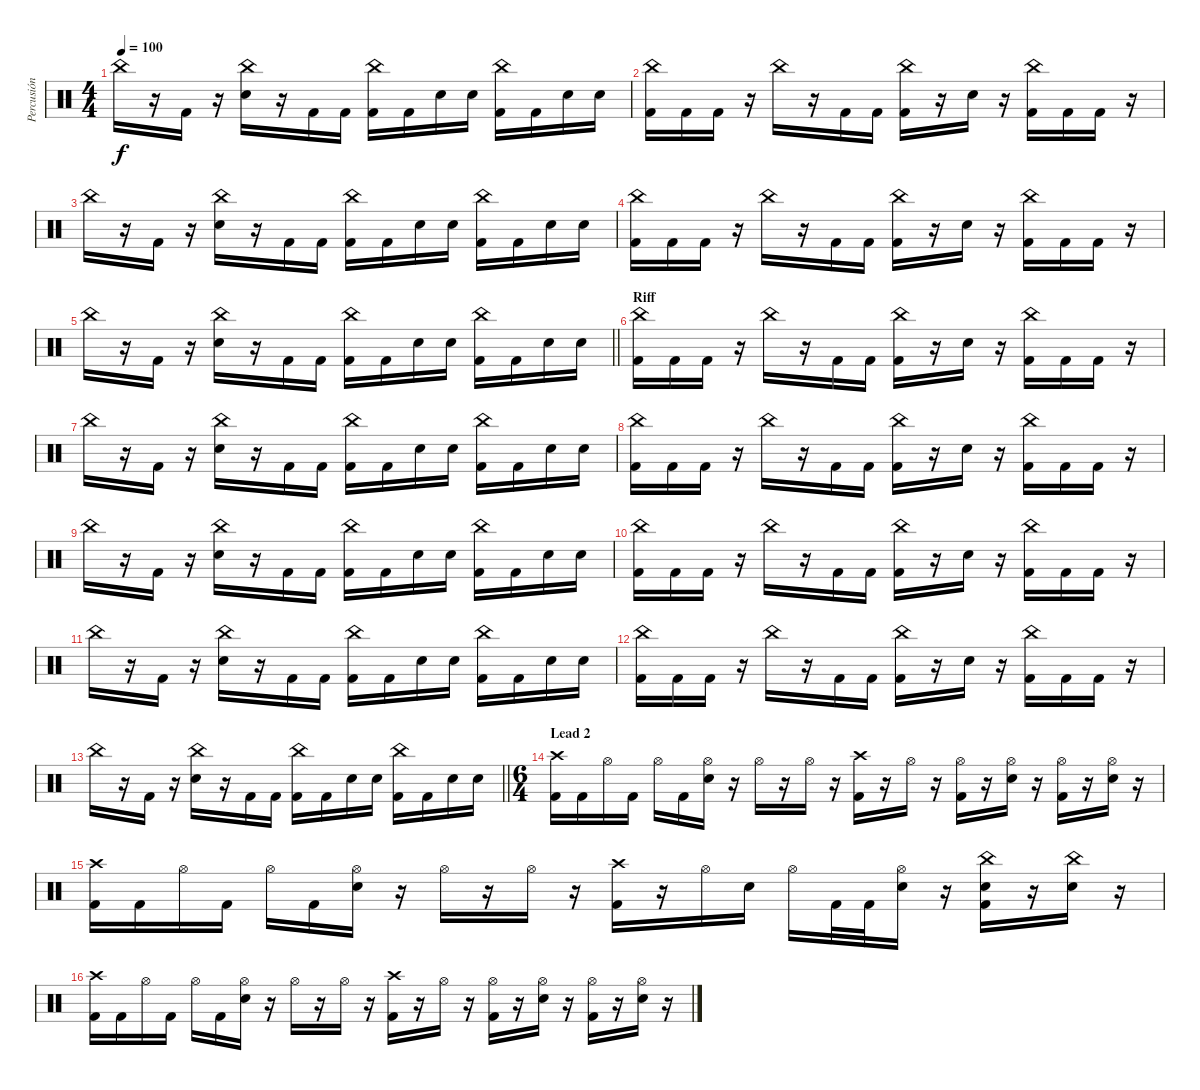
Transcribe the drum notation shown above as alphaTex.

\track ("Percusión" "Percusión") {instrument percussion}
\staff {score}
\articulation defaults
\ts (4 4)
\tempo 100
\clef neutral
\ks c "China (hit)".16{dy f}
r.16 "Kick (hit) 2".16 r.16 ("China (hit)" "Snare (hit) 2").16 r.16 "Kick (hit) 2".16 "Kick (hit) 2".16 ("China (hit)" "Kick (hit) 2").16 "Kick (hit) 2".16 "Snare (hit) 2".16 "Snare (hit) 2".16 ("China (hit)" "Kick (hit) 2").16 "Kick (hit) 2".16 "Snare (hit) 2".16 "Snare (hit) 2".16 |
("China (hit)" "Kick (hit) 2").16 "Kick (hit) 2".16 "Kick (hit) 2".16 r.16 "China (hit)".16 r.16 "Kick (hit) 2".16 "Kick (hit) 2".16 ("China (hit)" "Kick (hit) 2").16 r.16 "Snare (hit) 2".16 r.16 ("China (hit)" "Kick (hit) 2").16 "Kick (hit) 2".16 "Kick (hit) 2".16 r.16 |
"China (hit)".16 r.16 "Kick (hit) 2".16 r.16 ("China (hit)" "Snare (hit) 2").16 r.16 "Kick (hit) 2".16 "Kick (hit) 2".16 ("China (hit)" "Kick (hit) 2").16 "Kick (hit) 2".16 "Snare (hit) 2".16 "Snare (hit) 2".16 ("China (hit)" "Kick (hit) 2").16 "Kick (hit) 2".16 "Snare (hit) 2".16 "Snare (hit) 2".16 |
("China (hit)" "Kick (hit) 2").16 "Kick (hit) 2".16 "Kick (hit) 2".16 r.16 "China (hit)".16 r.16 "Kick (hit) 2".16 "Kick (hit) 2".16 ("China (hit)" "Kick (hit) 2").16 r.16 "Snare (hit) 2".16 r.16 ("China (hit)" "Kick (hit) 2").16 "Kick (hit) 2".16 "Kick (hit) 2".16 r.16 |
\barLineRight lightlight "China (hit)".16
r.16 "Kick (hit) 2".16 r.16 ("China (hit)" "Snare (hit) 2").16 r.16 "Kick (hit) 2".16 "Kick (hit) 2".16 ("China (hit)" "Kick (hit) 2").16 "Kick (hit) 2".16 "Snare (hit) 2".16 "Snare (hit) 2".16 ("China (hit)" "Kick (hit) 2").16 "Kick (hit) 2".16 "Snare (hit) 2".16 "Snare (hit) 2".16 |
\section ("" "Riff")
("China (hit)" "Kick (hit) 2").16 "Kick (hit) 2".16 "Kick (hit) 2".16 r.16 "China (hit)".16 r.16 "Kick (hit) 2".16 "Kick (hit) 2".16 ("China (hit)" "Kick (hit) 2").16 r.16 "Snare (hit) 2".16 r.16 ("China (hit)" "Kick (hit) 2").16 "Kick (hit) 2".16 "Kick (hit) 2".16 r.16 |
"China (hit)".16 r.16 "Kick (hit) 2".16 r.16 ("China (hit)" "Snare (hit) 2").16 r.16 "Kick (hit) 2".16 "Kick (hit) 2".16 ("China (hit)" "Kick (hit) 2").16 "Kick (hit) 2".16 "Snare (hit) 2".16 "Snare (hit) 2".16 ("China (hit)" "Kick (hit) 2").16 "Kick (hit) 2".16 "Snare (hit) 2".16 "Snare (hit) 2".16 |
("China (hit)" "Kick (hit) 2").16 "Kick (hit) 2".16 "Kick (hit) 2".16 r.16 "China (hit)".16 r.16 "Kick (hit) 2".16 "Kick (hit) 2".16 ("China (hit)" "Kick (hit) 2").16 r.16 "Snare (hit) 2".16 r.16 ("China (hit)" "Kick (hit) 2").16 "Kick (hit) 2".16 "Kick (hit) 2".16 r.16 |
"China (hit)".16 r.16 "Kick (hit) 2".16 r.16 ("China (hit)" "Snare (hit) 2").16 r.16 "Kick (hit) 2".16 "Kick (hit) 2".16 ("China (hit)" "Kick (hit) 2").16 "Kick (hit) 2".16 "Snare (hit) 2".16 "Snare (hit) 2".16 ("China (hit)" "Kick (hit) 2").16 "Kick (hit) 2".16 "Snare (hit) 2".16 "Snare (hit) 2".16 |
("China (hit)" "Kick (hit) 2").16 "Kick (hit) 2".16 "Kick (hit) 2".16 r.16 "China (hit)".16 r.16 "Kick (hit) 2".16 "Kick (hit) 2".16 ("China (hit)" "Kick (hit) 2").16 r.16 "Snare (hit) 2".16 r.16 ("China (hit)" "Kick (hit) 2").16 "Kick (hit) 2".16 "Kick (hit) 2".16 r.16 |
"China (hit)".16 r.16 "Kick (hit) 2".16 r.16 ("China (hit)" "Snare (hit) 2").16 r.16 "Kick (hit) 2".16 "Kick (hit) 2".16 ("China (hit)" "Kick (hit) 2").16 "Kick (hit) 2".16 "Snare (hit) 2".16 "Snare (hit) 2".16 ("China (hit)" "Kick (hit) 2").16 "Kick (hit) 2".16 "Snare (hit) 2".16 "Snare (hit) 2".16 |
("China (hit)" "Kick (hit) 2").16 "Kick (hit) 2".16 "Kick (hit) 2".16 r.16 "China (hit)".16 r.16 "Kick (hit) 2".16 "Kick (hit) 2".16 ("China (hit)" "Kick (hit) 2").16 r.16 "Snare (hit) 2".16 r.16 ("China (hit)" "Kick (hit) 2").16 "Kick (hit) 2".16 "Kick (hit) 2".16 r.16 |
\barLineRight lightlight "China (hit)".16
r.16 "Kick (hit) 2".16 r.16 ("China (hit)" "Snare (hit) 2").16 r.16 "Kick (hit) 2".16 "Kick (hit) 2".16 ("China (hit)" "Kick (hit) 2").16 "Kick (hit) 2".16 "Snare (hit) 2".16 "Snare (hit) 2".16 ("China (hit)" "Kick (hit) 2").16 "Kick (hit) 2".16 "Snare (hit) 2".16 "Snare (hit) 2".16 |
\ts (6 4)
\section ("" "Lead 2")
("Crash high (hit)" "Kick (hit) 2").16 "Kick (hit) 2".16 "Hi-Hat (open)".16 "Kick (hit) 2".16 "Hi-Hat (open)".16 "Kick (hit) 2".16 ("Hi-Hat (open)" "Snare (hit) 2").16 r.16 "Hi-Hat (open)".16 r.16 "Hi-Hat (open)".16 r.16 ("Crash high (hit)" "Kick (hit) 2").16 r.16 "Hi-Hat (open)".16 r.16 ("Hi-Hat (open)" "Kick (hit) 2").16 r.16 ("Hi-Hat (open)" "Snare (hit) 2").16 r.16 ("Hi-Hat (open)" "Kick (hit) 2").16 r.16 ("Hi-Hat (open)" "Snare (hit) 2").16 r.16 |
("Crash high (hit)" "Kick (hit) 2").16 "Kick (hit) 2".16 "Hi-Hat (open)".16 "Kick (hit) 2".16 "Hi-Hat (open)".16 "Kick (hit) 2".16 ("Hi-Hat (open)" "Snare (hit) 2").16 r.16 "Hi-Hat (open)".16 r.16 "Hi-Hat (open)".16 r.16 ("Crash high (hit)" "Kick (hit) 2").16 r.16 "Hi-Hat (open)".16 "Snare (hit) 2".16 "Hi-Hat (open)".16 "Kick (hit) 2".32 "Kick (hit) 2".32 ("Hi-Hat (open)" "Snare (hit) 2").16 r.16 ("China (hit)" "Snare (hit) 2" "Kick (hit) 2").16 r.16 ("China (hit)" "Snare (hit) 2").16 r.16 |
("Crash high (hit)" "Kick (hit) 2").16 "Kick (hit) 2".16 "Hi-Hat (open)".16 "Kick (hit) 2".16 "Hi-Hat (open)".16 "Kick (hit) 2".16 ("Hi-Hat (open)" "Snare (hit) 2").16 r.16 "Hi-Hat (open)".16 r.16 "Hi-Hat (open)".16 r.16 ("Crash high (hit)" "Kick (hit) 2").16 r.16 "Hi-Hat (open)".16 r.16 ("Hi-Hat (open)" "Kick (hit) 2").16 r.16 ("Hi-Hat (open)" "Snare (hit) 2").16 r.16 ("Hi-Hat (open)" "Kick (hit) 2").16 r.16 ("Hi-Hat (open)" "Snare (hit) 2").16 r.16
